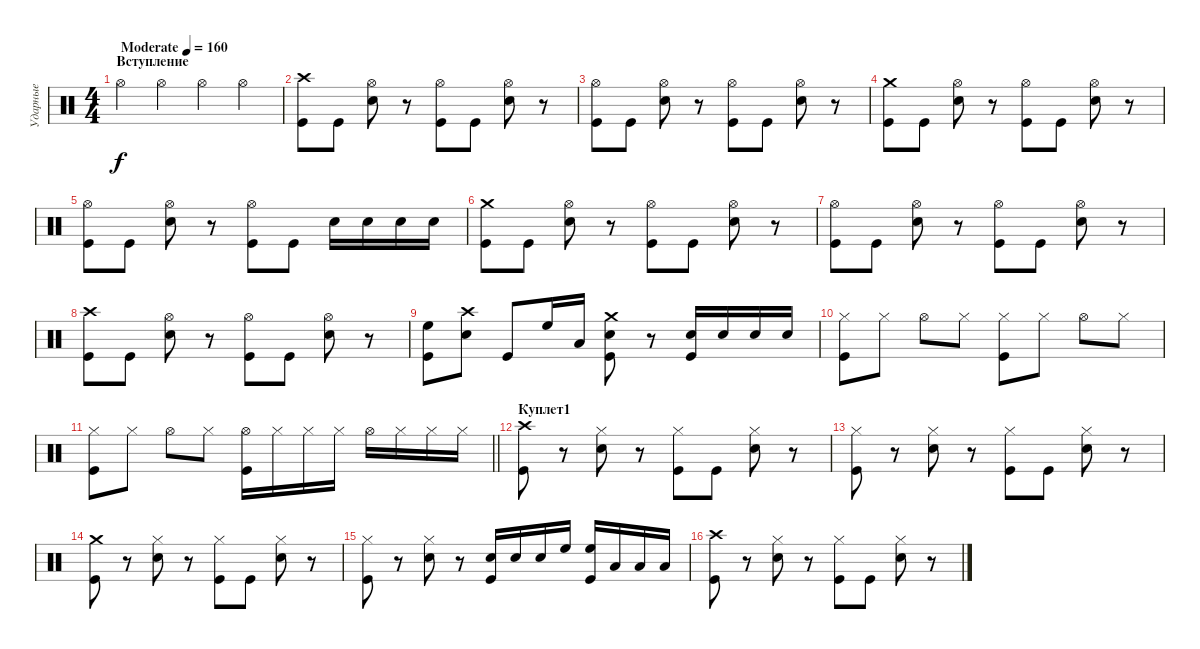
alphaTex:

\track ("Ударные" "Ударные") {instrument percussion}
\staff {score}
\articulation defaults
\ts (4 4)
\section ("" "Вступление")
\tempo (160 "Moderate")
\clef neutral
\ks c "Hi-Hat (open)".4{dy f} "Hi-Hat (open)".4 "Hi-Hat (open)".4 "Hi-Hat (open)".4
|
("Kick (hit)" "Crash high (hit)").8 "Kick (hit)".8 ("Snare (hit) 2" "Hi-Hat (open)").8 r.8 ("Kick (hit)" "Hi-Hat (open)").8 "Kick (hit)".8 ("Snare (hit) 2" "Hi-Hat (open)").8 r.8 |
("Kick (hit)" "Hi-Hat (open)").8 "Kick (hit)".8 ("Snare (hit) 2" "Hi-Hat (open)").8 r.8 ("Kick (hit)" "Hi-Hat (open)").8 "Kick (hit)".8 ("Snare (hit) 2" "Hi-Hat (open)").8 r.8 |
("Kick (hit)" "Crash medium (hit)").8 "Kick (hit)".8 ("Snare (hit) 2" "Hi-Hat (open)").8 r.8 ("Kick (hit)" "Hi-Hat (open)").8 "Kick (hit)".8 ("Snare (hit) 2" "Hi-Hat (open)").8 r.8 |
("Kick (hit)" "Hi-Hat (open)").8 "Kick (hit)".8 ("Snare (hit) 2" "Hi-Hat (open)").8 r.8 ("Kick (hit)" "Hi-Hat (open)").8 "Kick (hit)".8 "Snare (hit) 2".16 "Snare (hit) 2".16 "Snare (hit) 2".16 "Snare (hit) 2".16 |
("Kick (hit)" "Crash medium (hit)").8 "Kick (hit)".8 ("Snare (hit) 2" "Hi-Hat (open)").8 r.8 ("Kick (hit)" "Hi-Hat (open)").8 "Kick (hit)".8 ("Snare (hit) 2" "Hi-Hat (open)").8 r.8 |
("Kick (hit)" "Hi-Hat (open)").8 "Kick (hit)".8 ("Snare (hit) 2" "Hi-Hat (open)").8 r.8 ("Kick (hit)" "Hi-Hat (open)").8 "Kick (hit)".8 ("Snare (hit) 2" "Hi-Hat (open)").8 r.8 |
("Kick (hit)" "Crash high (hit)").8 "Kick (hit)".8 ("Snare (hit) 2" "Hi-Hat (open)").8 r.8 ("Kick (hit)" "Hi-Hat (open)").8 "Kick (hit)".8 ("Snare (hit) 2" "Hi-Hat (open)").8 r.8 |
("High Floor Tom (hit)" "Kick (hit)").8 ("Snare (hit) 2" "Crash high (hit)").8 "Kick (hit)".8 "High Floor Tom (hit)".16 "Low Tom (hit)".16 ("Snare (hit) 2" "Kick (hit)" "Crash medium (hit)").8 r.8 ("Snare (hit) 2" "Kick (hit)").16 "Snare (hit) 2".16 "Snare (hit) 2".16 "Snare (hit) 2".16 |
("Hi-Hat (closed)" "Kick (hit)").8 "Hi-Hat (closed)".8 "Hi-Hat (open)".8 "Hi-Hat (closed)".8 ("Hi-Hat (closed)" "Kick (hit)").8 "Hi-Hat (closed)".8 "Hi-Hat (open)".8 "Hi-Hat (closed)".8 |
\barLineRight lightlight
("Hi-Hat (closed)" "Kick (hit)").8 "Hi-Hat (closed)".8 "Hi-Hat (open)".8 "Hi-Hat (closed)".8 ("Hi-Hat (open)" "Kick (hit)").16 "Hi-Hat (closed)".16 "Hi-Hat (closed)".16 "Hi-Hat (closed)".16 "Hi-Hat (open)".16 "Hi-Hat (closed)".16 "Hi-Hat (closed)".16 "Hi-Hat (closed)".16 |
\section ("" "Куплет1")
("Kick (hit)" "Crash high (hit)").8 r.8 ("Snare (hit) 2" "Hi-Hat (closed)").8 r.8 ("Kick (hit)" "Hi-Hat (closed)").8 "Kick (hit)".8 ("Snare (hit) 2" "Hi-Hat (closed)").8 r.8 |
("Kick (hit)" "Hi-Hat (closed)").8 r.8 ("Snare (hit) 2" "Hi-Hat (closed)").8 r.8 ("Kick (hit)" "Hi-Hat (closed)").8 "Kick (hit)".8 ("Snare (hit) 2" "Hi-Hat (closed)").8 r.8 |
("Kick (hit)" "Crash medium (hit)").8 r.8 ("Snare (hit) 2" "Hi-Hat (closed)").8 r.8 ("Kick (hit)" "Hi-Hat (closed)").8 "Kick (hit)".8 ("Snare (hit) 2" "Hi-Hat (closed)").8 r.8 |
("Kick (hit)" "Hi-Hat (closed)").8 r.8 ("Snare (hit) 2" "Hi-Hat (closed)").8 r.8 ("Snare (hit) 2" "Kick (hit)").16 "Snare (hit) 2".16 "Snare (hit) 2".16 "High Floor Tom (hit)".16 ("High Floor Tom (hit)" "Kick (hit)").16 "Low Tom (hit)".16 "Low Tom (hit)".16 "Low Tom (hit)".16 |
("Kick (hit)" "Crash high (hit)").8 r.8 ("Snare (hit) 2" "Hi-Hat (closed)").8 r.8 ("Kick (hit)" "Hi-Hat (closed)").8 "Kick (hit)".8 ("Snare (hit) 2" "Hi-Hat (closed)").8 r.8
